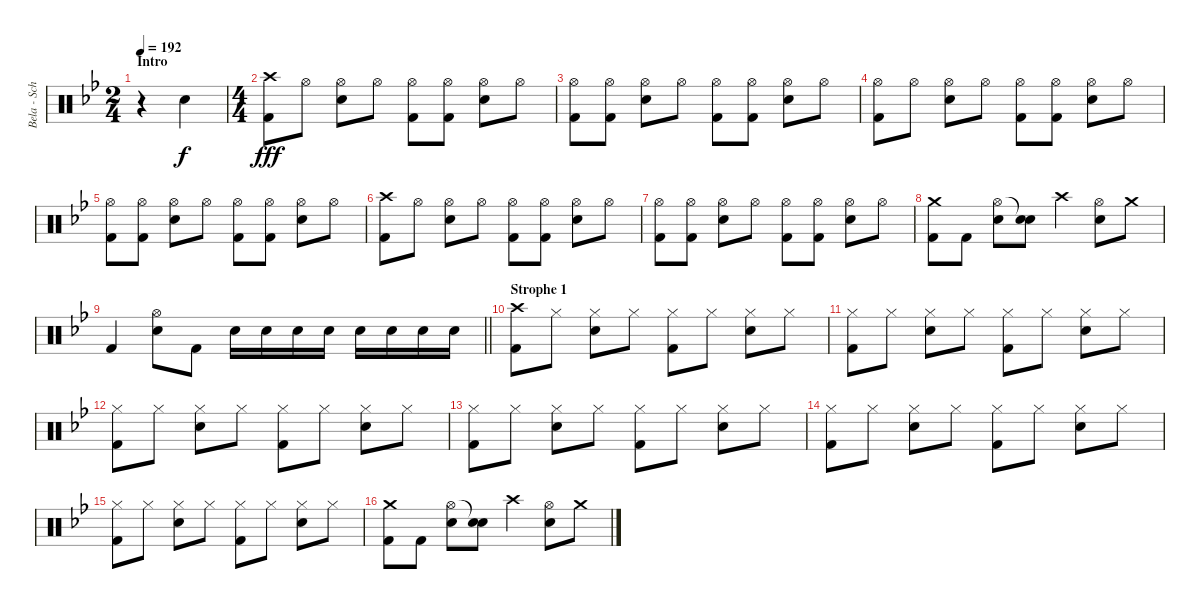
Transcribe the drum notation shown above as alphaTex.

\track ("Bela - Schlagzeug" "Bela - Sch") {instrument percussion}
\staff {score}
\articulation defaults
\ts (2 4)
\section ("" "Intro")
\tempo 192
\clef neutral
\ks bb
r.4{dy f} "Snare (hit) 2".4 |
\ts (4 4)
("Crash high (hit)" "Kick (hit) 2").8{dy fff} "Hi-Hat (open)".8 ("Hi-Hat (open)" "Snare (hit) 2").8 "Hi-Hat (open)".8 ("Hi-Hat (open)" "Kick (hit) 2").8 ("Hi-Hat (open)" "Kick (hit) 2").8 ("Hi-Hat (open)" "Snare (hit) 2").8 "Hi-Hat (open)".8 |
("Hi-Hat (open)" "Kick (hit) 2").8 ("Hi-Hat (open)" "Kick (hit) 2").8 ("Hi-Hat (open)" "Snare (hit) 2").8 "Hi-Hat (open)".8 ("Hi-Hat (open)" "Kick (hit) 2").8 ("Hi-Hat (open)" "Kick (hit) 2").8 ("Hi-Hat (open)" "Snare (hit) 2").8 "Hi-Hat (open)".8 |
("Hi-Hat (open)" "Kick (hit) 2").8 "Hi-Hat (open)".8 ("Hi-Hat (open)" "Snare (hit) 2").8 "Hi-Hat (open)".8 ("Hi-Hat (open)" "Kick (hit) 2").8 ("Hi-Hat (open)" "Kick (hit) 2").8 ("Hi-Hat (open)" "Snare (hit) 2").8 "Hi-Hat (open)".8 |
("Hi-Hat (open)" "Kick (hit) 2").8 ("Hi-Hat (open)" "Kick (hit) 2").8 ("Hi-Hat (open)" "Snare (hit) 2").8 "Hi-Hat (open)".8 ("Hi-Hat (open)" "Kick (hit) 2").8 ("Hi-Hat (open)" "Kick (hit) 2").8 ("Hi-Hat (open)" "Snare (hit) 2").8 "Hi-Hat (open)".8 |
("Crash high (hit)" "Kick (hit) 2").8 "Hi-Hat (open)".8 ("Hi-Hat (open)" "Snare (hit) 2").8 "Hi-Hat (open)".8 ("Hi-Hat (open)" "Kick (hit) 2").8 ("Hi-Hat (open)" "Kick (hit) 2").8 ("Hi-Hat (open)" "Snare (hit) 2").8 "Hi-Hat (open)".8 |
("Hi-Hat (open)" "Kick (hit) 2").8 ("Hi-Hat (open)" "Kick (hit) 2").8 ("Hi-Hat (open)" "Snare (hit) 2").8 "Hi-Hat (open)".8 ("Hi-Hat (open)" "Kick (hit) 2").8 ("Hi-Hat (open)" "Kick (hit) 2").8 ("Hi-Hat (open)" "Snare (hit) 2").8 "Hi-Hat (open)".8 |
("Crash medium (hit)" "Kick (hit) 2").8 "Kick (hit) 2".8 ("Hi-Hat (open)" "Snare (hit) 2").8 ("Snare (hit)"{t} "Snare (hit) 2").8 "Crash high (hit)".4 ("Hi-Hat (open)" "Snare (hit) 2").8 "Crash medium (hit)".8 |
\barLineRight lightlight "Kick (hit) 2".4
("Hi-Hat (open)" "Snare (hit) 2").8 "Kick (hit) 2".8 "Snare (hit) 2".16 "Snare (hit) 2".16 "Snare (hit) 2".16 "Snare (hit) 2".16 "Snare (hit) 2".16 "Snare (hit) 2".16 "Snare (hit) 2".16 "Snare (hit) 2".16 |
\section ("" "Strophe 1")
("Crash high (hit)" "Kick (hit) 2").8 "Hi-Hat (closed)".8 ("Hi-Hat (closed)" "Snare (hit) 2").8 "Hi-Hat (closed)".8 ("Hi-Hat (closed)" "Kick (hit) 2").8 "Hi-Hat (closed)".8 ("Hi-Hat (closed)" "Snare (hit) 2").8 "Hi-Hat (closed)".8 |
("Hi-Hat (closed)" "Kick (hit) 2").8 "Hi-Hat (closed)".8 ("Hi-Hat (closed)" "Snare (hit) 2").8 "Hi-Hat (closed)".8 ("Hi-Hat (closed)" "Kick (hit) 2").8 "Hi-Hat (closed)".8 ("Hi-Hat (closed)" "Snare (hit) 2").8 "Hi-Hat (closed)".8 |
("Hi-Hat (closed)" "Kick (hit) 2").8 "Hi-Hat (closed)".8 ("Hi-Hat (closed)" "Snare (hit) 2").8 "Hi-Hat (closed)".8 ("Hi-Hat (closed)" "Kick (hit) 2").8 "Hi-Hat (closed)".8 ("Hi-Hat (closed)" "Snare (hit) 2").8 "Hi-Hat (closed)".8 |
("Hi-Hat (closed)" "Kick (hit) 2").8 "Hi-Hat (closed)".8 ("Hi-Hat (closed)" "Snare (hit) 2").8 "Hi-Hat (closed)".8 ("Hi-Hat (closed)" "Kick (hit) 2").8 "Hi-Hat (closed)".8 ("Hi-Hat (closed)" "Snare (hit) 2").8 "Hi-Hat (closed)".8 |
("Hi-Hat (closed)" "Kick (hit) 2").8 "Hi-Hat (closed)".8 ("Hi-Hat (closed)" "Snare (hit) 2").8 "Hi-Hat (closed)".8 ("Hi-Hat (closed)" "Kick (hit) 2").8 "Hi-Hat (closed)".8 ("Hi-Hat (closed)" "Snare (hit) 2").8 "Hi-Hat (closed)".8 |
("Hi-Hat (closed)" "Kick (hit) 2").8 "Hi-Hat (closed)".8 ("Hi-Hat (closed)" "Snare (hit) 2").8 "Hi-Hat (closed)".8 ("Hi-Hat (closed)" "Kick (hit) 2").8 "Hi-Hat (closed)".8 ("Hi-Hat (closed)" "Snare (hit) 2").8 "Hi-Hat (closed)".8 |
("Crash medium (hit)" "Kick (hit) 2").8 "Kick (hit) 2".8 ("Hi-Hat (open)" "Snare (hit) 2").8 ("Snare (hit)"{t} "Snare (hit) 2").8 "Crash high (hit)".4 ("Hi-Hat (open)" "Snare (hit) 2").8 "Crash medium (hit)".8
